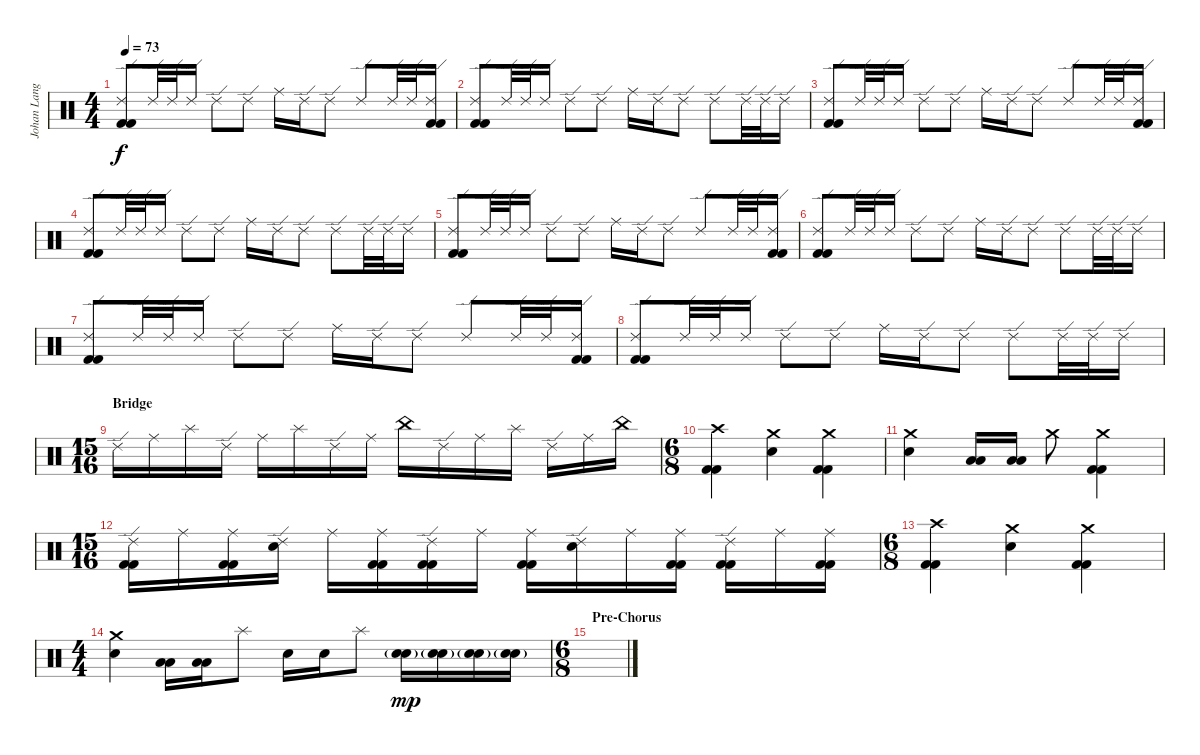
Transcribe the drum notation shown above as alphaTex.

\track ("Johan Langell" "Johan Lang") {instrument percussion}
\staff {score}
\articulation defaults
\ts (4 4)
\tempo 73
\clef neutral
\ks c
("Ride (edge) 2" "Kick (hit) 2" "Kick (hit) 2").8{dy f} "Ride (edge) 2".32 "Ride (edge) 2".32 "Ride (edge) 2".16 "Ride (edge) 2".8 "Ride (edge) 2".8 "Ride (middle)".16 "Ride (edge) 2".16 "Ride (edge) 2".8 "Ride (edge) 2".8 "Ride (edge) 2".32 "Ride (edge) 2".32 ("Ride (edge) 2" "Kick (hit) 2" "Kick (hit) 2").16 |
("Ride (edge) 2" "Kick (hit) 2" "Kick (hit) 2").8 "Ride (edge) 2".32 "Ride (edge) 2".32 "Ride (edge) 2".16 "Ride (edge) 2".8 "Ride (edge) 2".8 "Ride (middle)".16 "Ride (edge) 2".16 "Ride (edge) 2".8 "Ride (edge) 2".8 "Ride (edge) 2".32 "Ride (edge) 2".32 "Ride (edge) 2".16 |
("Ride (edge) 2" "Kick (hit) 2" "Kick (hit) 2").8 "Ride (edge) 2".32 "Ride (edge) 2".32 "Ride (edge) 2".16 "Ride (edge) 2".8 "Ride (edge) 2".8 "Ride (middle)".16 "Ride (edge) 2".16 "Ride (edge) 2".8 "Ride (edge) 2".8 "Ride (edge) 2".32 "Ride (edge) 2".32 ("Ride (edge) 2" "Kick (hit) 2" "Kick (hit) 2").16 |
("Ride (edge) 2" "Kick (hit) 2" "Kick (hit) 2").8 "Ride (edge) 2".32 "Ride (edge) 2".32 "Ride (edge) 2".16 "Ride (edge) 2".8 "Ride (edge) 2".8 "Ride (middle)".16 "Ride (edge) 2".16 "Ride (edge) 2".8 "Ride (edge) 2".8 "Ride (edge) 2".32 "Ride (edge) 2".32 "Ride (edge) 2".16 |
("Ride (edge) 2" "Kick (hit) 2" "Kick (hit) 2").8 "Ride (edge) 2".32 "Ride (edge) 2".32 "Ride (edge) 2".16 "Ride (edge) 2".8 "Ride (edge) 2".8 "Ride (middle)".16 "Ride (edge) 2".16 "Ride (edge) 2".8 "Ride (edge) 2".8 "Ride (edge) 2".32 "Ride (edge) 2".32 ("Ride (edge) 2" "Kick (hit) 2" "Kick (hit) 2").16 |
("Ride (edge) 2" "Kick (hit) 2" "Kick (hit) 2").8 "Ride (edge) 2".32 "Ride (edge) 2".32 "Ride (edge) 2".16 "Ride (edge) 2".8 "Ride (edge) 2".8 "Ride (middle)".16 "Ride (edge) 2".16 "Ride (edge) 2".8 "Ride (edge) 2".8 "Ride (edge) 2".32 "Ride (edge) 2".32 "Ride (edge) 2".16 |
("Ride (edge) 2" "Kick (hit) 2" "Kick (hit) 2").8 "Ride (edge) 2".32 "Ride (edge) 2".32 "Ride (edge) 2".16 "Ride (edge) 2".8 "Ride (edge) 2".8 "Ride (middle)".16 "Ride (edge) 2".16 "Ride (edge) 2".8 "Ride (edge) 2".8 "Ride (edge) 2".32 "Ride (edge) 2".32 ("Ride (edge) 2" "Kick (hit) 2" "Kick (hit) 2").16 |
("Ride (edge) 2" "Kick (hit) 2" "Kick (hit) 2").8 "Ride (edge) 2".32 "Ride (edge) 2".32 "Ride (edge) 2".16 "Ride (edge) 2".8 "Ride (edge) 2".8 "Ride (middle)".16 "Ride (edge) 2".16 "Ride (edge) 2".8 "Ride (edge) 2".8 "Ride (edge) 2".32 "Ride (edge) 2".32 "Ride (edge) 2".16 |
\ts (15 16)
\section ("" "Bridge")
"Ride (edge) 2".16 "Ride (middle)".16 "Splash (hit)".16 "Ride (edge) 2".16 "Ride (middle)".16 "Splash (hit)".16 "Ride (edge) 2".16 "Ride (middle)".16 "China (hit)".16 "Ride (edge) 2".16 "Ride (middle)".16 "Splash (hit)".16 "Ride (edge) 2".16 "Ride (middle)".16 "China (hit)".16 |
\ts (6 8)
("Crash high (hit)" "Kick (hit) 2" "Kick (hit) 2").4 ("Crash medium (hit)" "Snare (hit) 2").4 ("Crash medium (hit)" "Kick (hit) 2" "Kick (hit) 2").4 |
("Crash medium (hit)" "Snare (hit) 2").4 ("Low Floor Tom (hit)" "Low Floor Tom (hit)").16 ("Low Floor Tom (hit)" "Low Floor Tom (hit)").16 "Crash medium (hit)".8 ("Crash medium (hit)" "Kick (hit) 2" "Kick (hit) 2").4 |
\ts (15 16)
("Ride (edge) 2" "Kick (hit) 2" "Kick (hit) 2").16 "Ride (middle)".16 ("Ride (middle)" "Kick (hit) 2" "Kick (hit) 2").16 ("Ride (edge) 2" "Snare (hit) 2").16 "Ride (middle)".16 ("Ride (middle)" "Kick (hit) 2" "Kick (hit) 2").16 ("Ride (edge) 2" "Kick (hit) 2" "Kick (hit) 2").16 "Ride (middle)".16 ("Ride (middle)" "Kick (hit) 2" "Kick (hit) 2").16 ("Ride (edge) 2" "Snare (hit) 2").16 "Ride (middle)".16 ("Ride (middle)" "Kick (hit) 2" "Kick (hit) 2").16 ("Ride (edge) 2" "Kick (hit) 2" "Kick (hit) 2").16 "Ride (middle)".16 ("Ride (middle)" "Kick (hit) 2" "Kick (hit) 2").16 |
\ts (6 8)
("Crash high (hit)" "Kick (hit) 2" "Kick (hit) 2").4 ("Crash medium (hit)" "Snare (hit) 2").4 ("Crash medium (hit)" "Kick (hit) 2" "Kick (hit) 2").4 |
\ts (4 4)
("Crash medium (hit)" "Snare (hit) 2").4 ("Low Floor Tom (hit)" "Low Floor Tom (hit)").16 ("Low Floor Tom (hit)" "Low Floor Tom (hit)").16 "Splash (hit)".8 "Snare (hit) 2".16 "Snare (hit) 2".16 "Splash (hit)".8 ("Electric Snare (hit)"{g} "Electric Snare (hit)"{g}).16{dy mp} ("Electric Snare (hit)"{g} "Electric Snare (hit)"{g}).16 ("Electric Snare (hit)"{g} "Electric Snare (hit)"{g}).16 ("Electric Snare (hit)"{g} "Electric Snare (hit)"{g}).16 |
\ts (6 8)
\section ("" "Pre-Chorus")
